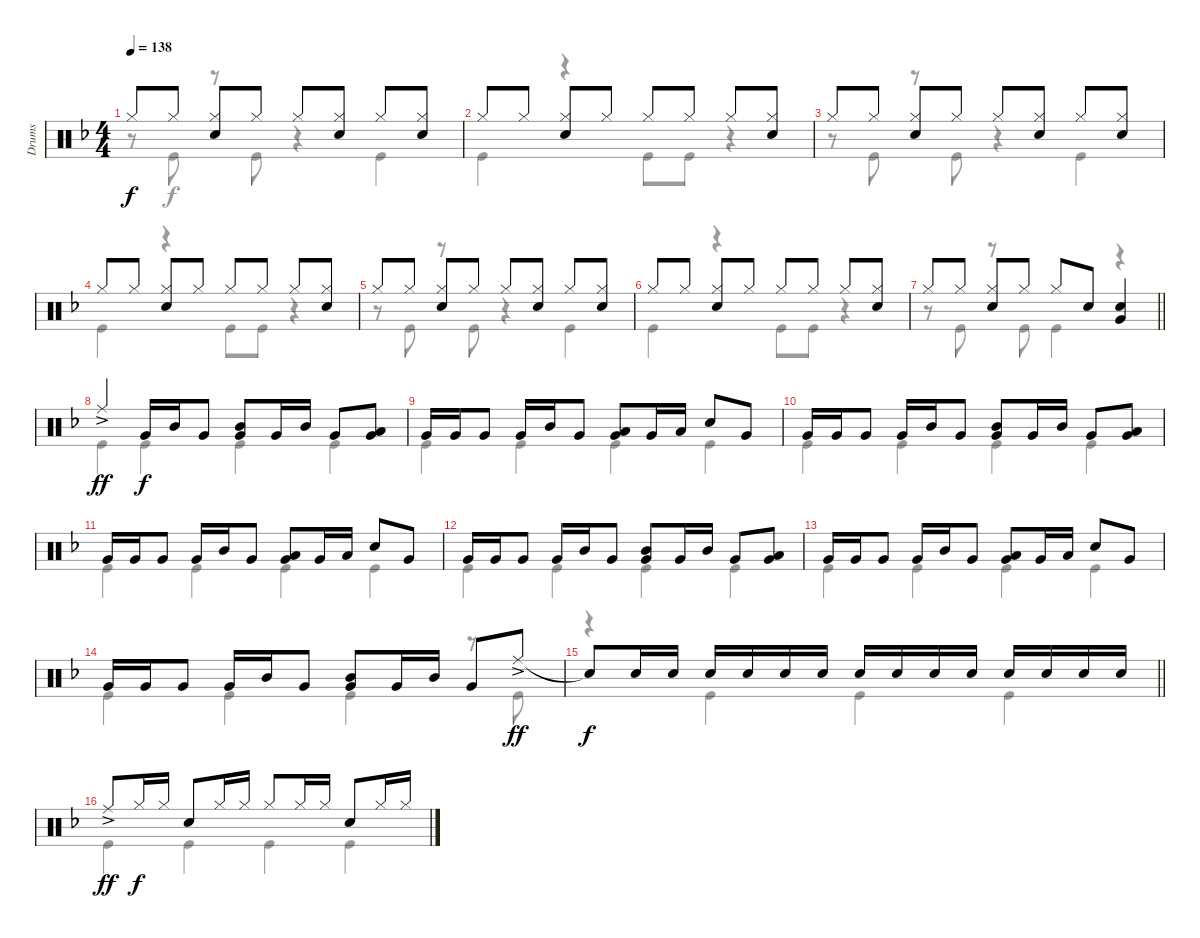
\track ("Drums" "Drums") {instrument percussion}
\staff {score}
\articulation defaults
\voice
\ts (4 4)
\tempo 138
\clef neutral
\ks f "Hi-Hat (closed)".8{dy f} "Hi-Hat (closed)".8
("Hi-Hat (closed)" "Snare (hit) 2").8 "Hi-Hat (closed)".8 "Hi-Hat (closed)".8 ("Hi-Hat (closed)" "Snare (hit) 2").8 "Hi-Hat (closed)".8 ("Hi-Hat (closed)" "Snare (hit) 2").8 |
"Hi-Hat (closed)".8 "Hi-Hat (closed)".8 ("Hi-Hat (closed)" "Snare (hit) 2").8 "Hi-Hat (closed)".8 "Hi-Hat (closed)".8 "Hi-Hat (closed)".8 "Hi-Hat (closed)".8 ("Hi-Hat (closed)" "Snare (hit) 2").8 |
"Hi-Hat (closed)".8 "Hi-Hat (closed)".8 ("Hi-Hat (closed)" "Snare (hit) 2").8 "Hi-Hat (closed)".8 "Hi-Hat (closed)".8 ("Hi-Hat (closed)" "Snare (hit) 2").8 "Hi-Hat (closed)".8 ("Hi-Hat (closed)" "Snare (hit) 2").8 |
"Hi-Hat (closed)".8 "Hi-Hat (closed)".8 ("Hi-Hat (closed)" "Snare (hit) 2").8 "Hi-Hat (closed)".8 "Hi-Hat (closed)".8 "Hi-Hat (closed)".8 "Hi-Hat (closed)".8 ("Hi-Hat (closed)" "Snare (hit) 2").8 |
"Hi-Hat (closed)".8 "Hi-Hat (closed)".8 ("Hi-Hat (closed)" "Snare (hit) 2").8 "Hi-Hat (closed)".8 "Hi-Hat (closed)".8 ("Hi-Hat (closed)" "Snare (hit) 2").8 "Hi-Hat (closed)".8 ("Hi-Hat (closed)" "Snare (hit) 2").8 |
"Hi-Hat (closed)".8 "Hi-Hat (closed)".8 ("Hi-Hat (closed)" "Snare (hit) 2").8 "Hi-Hat (closed)".8 "Hi-Hat (closed)".8 "Hi-Hat (closed)".8 "Hi-Hat (closed)".8 ("Hi-Hat (closed)" "Snare (hit) 2").8 |
\barLineRight lightlight "Hi-Hat (closed)".8 "Hi-Hat (closed)".8
("Hi-Hat (closed)" "Snare (hit) 2").8 "Hi-Hat (closed)".8 "Hi-Hat (closed)".8 "Snare (hit) 2".8 ("Snare (hit) 2" "Very Low Tom (hit)").4 |
"Ride (middle)"{ac}.4{dy ff} "Very Low Tom (hit)".16{dy f} "Mid Tom (hit)".16 "Very Low Tom (hit)".8 ("Mid Tom (hit)" "Very Low Tom (hit)").8 "Very Low Tom (hit)".16 "Mid Tom (hit)".16 "Very Low Tom (hit)".8 ("Low Tom (hit)" "Very Low Tom (hit)").8 |
"Very Low Tom (hit)".16 "Very Low Tom (hit)".16 "Very Low Tom (hit)".8 "Very Low Tom (hit)".16 "Mid Tom (hit)".16 "Very Low Tom (hit)".8 ("Low Tom (hit)" "Very Low Tom (hit)").8 "Very Low Tom (hit)".16 "Low Tom (hit)".16 "Snare (hit) 2".8 "Very Low Tom (hit)".8 |
"Very Low Tom (hit)".16 "Very Low Tom (hit)".16 "Very Low Tom (hit)".8 "Very Low Tom (hit)".16 "Mid Tom (hit)".16 "Very Low Tom (hit)".8 ("Mid Tom (hit)" "Very Low Tom (hit)").8 "Very Low Tom (hit)".16 "Mid Tom (hit)".16 "Very Low Tom (hit)".8 ("Low Tom (hit)" "Very Low Tom (hit)").8 |
"Very Low Tom (hit)".16 "Very Low Tom (hit)".16 "Very Low Tom (hit)".8 "Very Low Tom (hit)".16 "Mid Tom (hit)".16 "Very Low Tom (hit)".8 ("Low Tom (hit)" "Very Low Tom (hit)").8 "Very Low Tom (hit)".16 "Low Tom (hit)".16 "Snare (hit) 2".8 "Very Low Tom (hit)".8 |
"Very Low Tom (hit)".16 "Very Low Tom (hit)".16 "Very Low Tom (hit)".8 "Very Low Tom (hit)".16 "Mid Tom (hit)".16 "Very Low Tom (hit)".8 ("Mid Tom (hit)" "Very Low Tom (hit)").8 "Very Low Tom (hit)".16 "Mid Tom (hit)".16 "Very Low Tom (hit)".8 ("Low Tom (hit)" "Very Low Tom (hit)").8 |
"Very Low Tom (hit)".16 "Very Low Tom (hit)".16 "Very Low Tom (hit)".8 "Very Low Tom (hit)".16 "Mid Tom (hit)".16 "Very Low Tom (hit)".8 ("Low Tom (hit)" "Very Low Tom (hit)").8 "Very Low Tom (hit)".16 "Low Tom (hit)".16 "Snare (hit) 2".8 "Very Low Tom (hit)".8 |
"Very Low Tom (hit)".16 "Very Low Tom (hit)".16 "Very Low Tom (hit)".8 "Very Low Tom (hit)".16 "Mid Tom (hit)".16 "Very Low Tom (hit)".8 ("Mid Tom (hit)" "Very Low Tom (hit)").8 "Very Low Tom (hit)".16 "Mid Tom (hit)".16 "Very Low Tom (hit)".8 "Ride (middle)"{ac}.8{dy ff} |
\barLineRight lightlight "Snare (hit)"{t}.8{dy f} "Snare (hit) 2".16 "Snare (hit) 2".16 "Snare (hit) 2".16 "Snare (hit) 2".16 "Snare (hit) 2".16 "Snare (hit) 2".16 "Snare (hit) 2".16 "Snare (hit) 2".16 "Snare (hit) 2".16 "Snare (hit) 2".16 "Snare (hit) 2".16 "Snare (hit) 2".16 "Snare (hit) 2".16 "Snare (hit) 2".16
|
"Ride (middle)"{ac}.8{dy ff} "Hi-Hat (closed)".16{dy f} "Hi-Hat (closed)".16 "Snare (hit) 2".8 "Hi-Hat (closed)".16 "Hi-Hat (closed)".16 "Hi-Hat (closed)".8 "Hi-Hat (closed)".16 "Hi-Hat (closed)".16 "Snare (hit) 2".8 "Hi-Hat (closed)".16 "Hi-Hat (closed)".16
\voice
\clef neutral
\ottava regular
\simile none
\ks f
r.8{dy f} "Kick (hit)".8 r.8 "Kick (hit)".8 r.4 "Kick (hit)".4 |
"Kick (hit)".4 r.4 "Kick (hit)".8 "Kick (hit)".8 r.4 |
r.8 "Kick (hit)".8 r.8 "Kick (hit)".8 r.4 "Kick (hit)".4 |
"Kick (hit)".4 r.4 "Kick (hit)".8 "Kick (hit)".8 r.4 |
r.8 "Kick (hit)".8 r.8 "Kick (hit)".8 r.4 "Kick (hit)".4 |
"Kick (hit)".4 r.4 "Kick (hit)".8 "Kick (hit)".8 r.4 |
\barLineRight lightlight
r.8 "Kick (hit)".8 r.8 "Kick (hit)".8 "Kick (hit)".4 r.4 |
"Kick (hit)".4 "Kick (hit)".4 "Kick (hit)".4 "Kick (hit)".4 |
"Kick (hit)".4 "Kick (hit)".4 "Kick (hit)".4 "Kick (hit)".4 |
"Kick (hit)".4 "Kick (hit)".4 "Kick (hit)".4 "Kick (hit)".4 |
"Kick (hit)".4 "Kick (hit)".4 "Kick (hit)".4 "Kick (hit)".4 |
"Kick (hit)".4 "Kick (hit)".4 "Kick (hit)".4 "Kick (hit)".4 |
"Kick (hit)".4 "Kick (hit)".4 "Kick (hit)".4 "Kick (hit)".4 |
"Kick (hit)".4 "Kick (hit)".4 "Kick (hit)".4 r.8 "Kick (hit)".8 |
\barLineRight lightlight
r.4 "Kick (hit)".4 "Kick (hit)".4 "Kick (hit)".4 |
"Kick (hit)".4 "Kick (hit)".4 "Kick (hit)".4 "Kick (hit)".4
